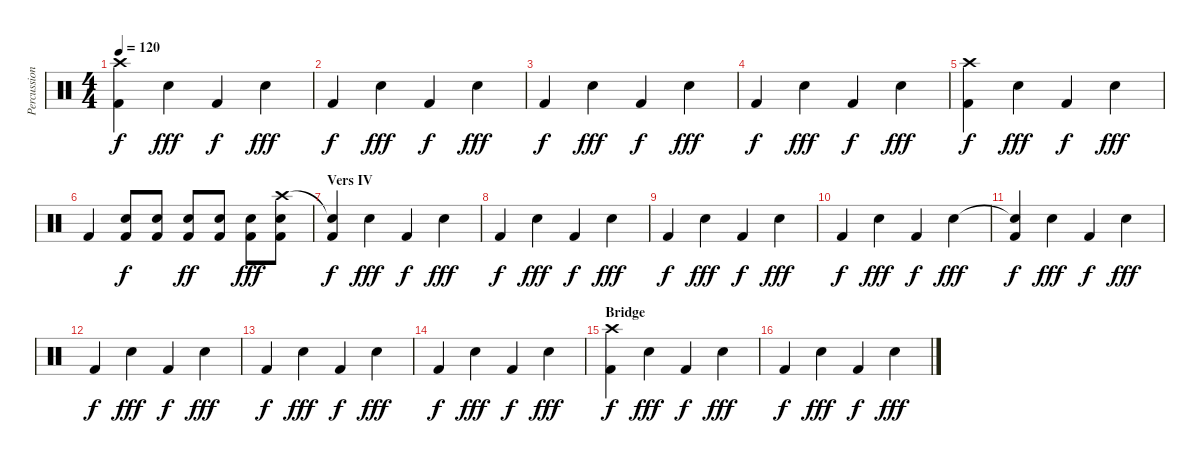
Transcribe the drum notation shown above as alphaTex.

\track ("Percussion" "Percussion") {instrument percussion}
\staff {score}
\articulation defaults
\ts (4 4)
\tempo 120
\clef neutral
\ks c
("Crash high (hit)" "Kick (hit) 2").4{dy f} "Electric Snare (hit)".4{dy fff} "Kick (hit) 2".4{dy f} "Electric Snare (hit)".4{dy fff} |
"Kick (hit) 2".4{dy f} "Electric Snare (hit)".4{dy fff} "Kick (hit) 2".4{dy f} "Electric Snare (hit)".4{dy fff} |
"Kick (hit) 2".4{dy f} "Electric Snare (hit)".4{dy fff} "Kick (hit) 2".4{dy f} "Electric Snare (hit)".4{dy fff} |
"Kick (hit) 2".4{dy f} "Electric Snare (hit)".4{dy fff} "Kick (hit) 2".4{dy f} "Electric Snare (hit)".4{dy fff} |
("Crash high (hit)" "Kick (hit) 2").4{dy f} "Electric Snare (hit)".4{dy fff} "Kick (hit) 2".4{dy f} "Electric Snare (hit)".4{dy fff} |
"Kick (hit) 2".4 ("Electric Snare (hit)" "Kick (hit) 2").8{dy f} ("Electric Snare (hit)" "Kick (hit) 2").8 ("Electric Snare (hit)" "Kick (hit) 2").8{dy ff} ("Electric Snare (hit)" "Kick (hit) 2").8 ("Electric Snare (hit)" "Kick (hit) 2").8{dy fff} ("Crash high (hit)" "Electric Snare (hit)" "Kick (hit) 2").8 |
\section ("" "Vers IV")
("Snare (hit)"{t} "Kick (hit) 2").4{dy f} "Electric Snare (hit)".4{dy fff} "Kick (hit) 2".4{dy f} "Electric Snare (hit)".4{dy fff} |
"Kick (hit) 2".4{dy f} "Electric Snare (hit)".4{dy fff} "Kick (hit) 2".4{dy f} "Electric Snare (hit)".4{dy fff} |
"Kick (hit) 2".4{dy f} "Electric Snare (hit)".4{dy fff} "Kick (hit) 2".4{dy f} "Electric Snare (hit)".4{dy fff} |
"Kick (hit) 2".4{dy f} "Electric Snare (hit)".4{dy fff} "Kick (hit) 2".4{dy f} "Electric Snare (hit)".4{dy fff} |
("Snare (hit)"{t} "Kick (hit) 2").4{dy f} "Electric Snare (hit)".4{dy fff} "Kick (hit) 2".4{dy f} "Electric Snare (hit)".4{dy fff} |
"Kick (hit) 2".4{dy f} "Electric Snare (hit)".4{dy fff} "Kick (hit) 2".4{dy f} "Electric Snare (hit)".4{dy fff} |
"Kick (hit) 2".4{dy f} "Electric Snare (hit)".4{dy fff} "Kick (hit) 2".4{dy f} "Electric Snare (hit)".4{dy fff} |
"Kick (hit) 2".4{dy f} "Electric Snare (hit)".4{dy fff} "Kick (hit) 2".4{dy f} "Electric Snare (hit)".4{dy fff} |
\section ("" "Bridge")
("Crash high (hit)" "Kick (hit) 2").4{dy f} "Electric Snare (hit)".4{dy fff} "Kick (hit) 2".4{dy f} "Electric Snare (hit)".4{dy fff} |
"Kick (hit) 2".4{dy f} "Electric Snare (hit)".4{dy fff} "Kick (hit) 2".4{dy f} "Electric Snare (hit)".4{dy fff}
